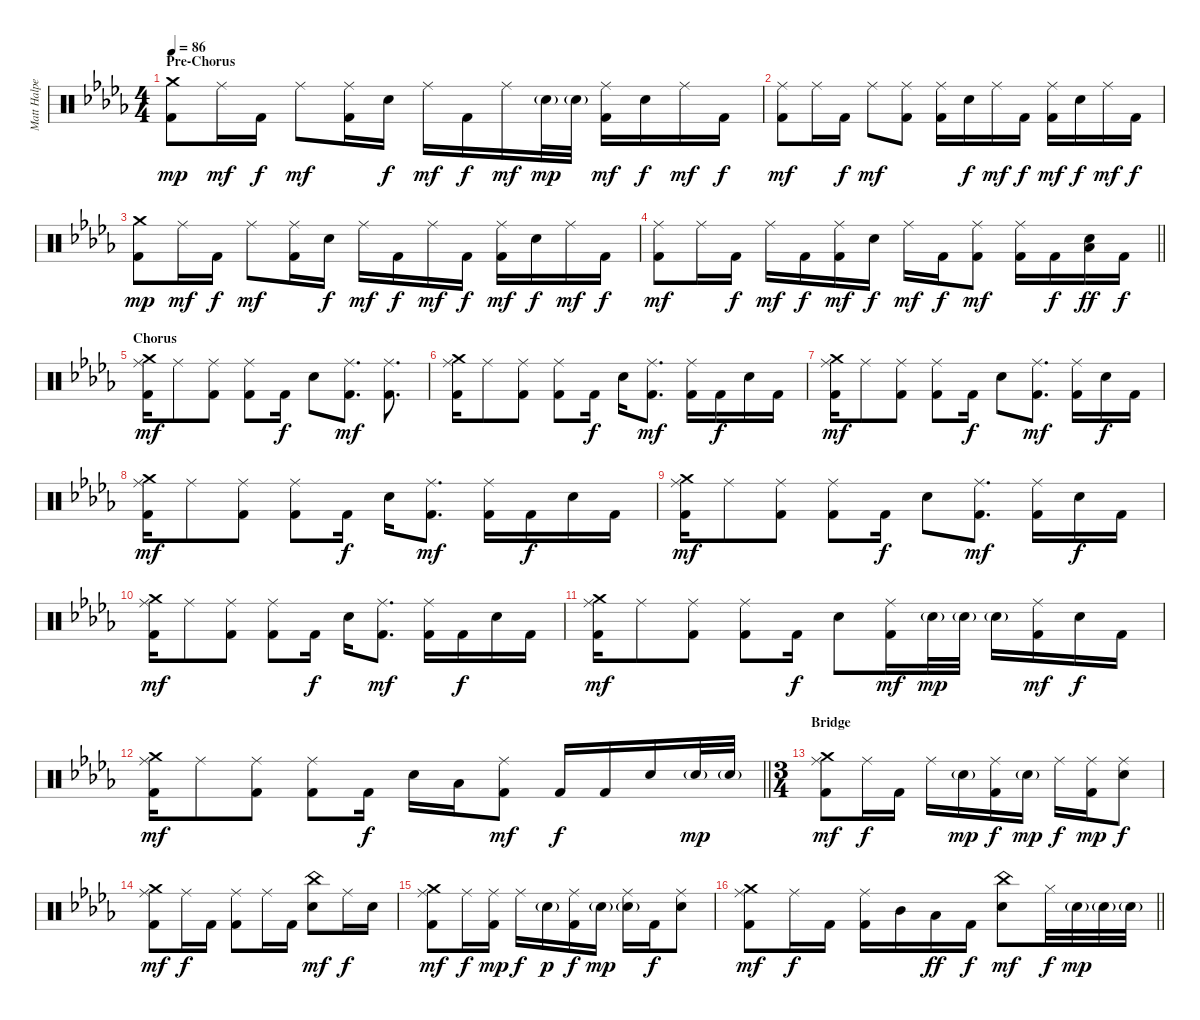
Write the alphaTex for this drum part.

\track ("Matt Halpern - Drums" "Matt Halpe") {instrument percussion}
\staff {score}
\articulation defaults
\ts (4 4)
\section ("" "Pre-Chorus")
\tempo 86
\clef neutral
\ks bbminor
("Crash medium (hit)" "Kick (hit) 2").8{dy mp} "Ride (middle)".16{dy mf} "Kick (hit) 2".16{dy f} "Ride (middle)".8{dy mf} ("Ride (middle)" "Kick (hit) 2").16 "Snare (hit) 2".16{dy f} "Ride (middle)".16{dy mf} "Kick (hit) 2".16{dy f} "Ride (middle)".16{dy mf} "Snare (hit) 2"{g}.32{dy mp} "Snare (hit) 2"{g}.32 ("Ride (middle)" "Kick (hit) 2").16{dy mf} "Snare (hit) 2".16{dy f} "Ride (middle)".16{dy mf} "Kick (hit) 2".16{dy f} |
("Ride (middle)" "Kick (hit) 2").8{dy mf} "Ride (middle)".16 "Kick (hit) 2".16{dy f} "Ride (middle)".8{dy mf} ("Ride (middle)" "Kick (hit) 2").8 ("Ride (middle)" "Kick (hit) 2").16 "Snare (hit) 2".16{dy f} "Ride (middle)".16{dy mf} "Kick (hit) 2".16{dy f} ("Ride (middle)" "Kick (hit) 2").16{dy mf} "Snare (hit) 2".16{dy f} "Ride (middle)".16{dy mf} "Kick (hit) 2".16{dy f} |
("Crash medium (hit)" "Kick (hit) 2").8{dy mp} "Ride (middle)".16{dy mf} "Kick (hit) 2".16{dy f} "Ride (middle)".8{dy mf} ("Ride (middle)" "Kick (hit) 2").16 "Snare (hit) 2".16{dy f} "Ride (middle)".16{dy mf} "Kick (hit) 2".16{dy f} "Ride (middle)".16{dy mf} "Kick (hit) 2".16{dy f} ("Ride (middle)" "Kick (hit) 2").16{dy mf} "Snare (hit) 2".16{dy f} "Ride (middle)".16{dy mf} "Kick (hit) 2".16{dy f} |
\barLineRight lightlight
("Ride (middle)" "Kick (hit) 2").8{dy mf} "Ride (middle)".16 "Kick (hit) 2".16{dy f} "Ride (middle)".16{dy mf} "Kick (hit) 2".16{dy f} ("Ride (middle)" "Kick (hit) 2").16{dy mf} "Snare (hit) 2".16{dy f} "Ride (middle)".16{dy mf} "Kick (hit) 2".16{dy f} ("Ride (middle)" "Kick (hit) 2").8{dy mf} ("Ride (middle)" "Kick (hit) 2").16 "Kick (hit) 2".16{dy f} ("Snare (hit) 2" "Low Floor Tom (hit)").16{bd 480 dy ff} "Kick (hit) 2".16{dy f} |
\section ("" "Chorus")
("Ride (middle)" "Crash medium (hit)" "Kick (hit) 2").16{dy mf} "Ride (middle)".8 ("Ride (middle)" "Kick (hit) 2").8 ("Ride (middle)" "Kick (hit) 2").8 "Kick (hit) 2".16{dy f} "Snare (hit) 2".8 ("Ride (middle)" "Kick (hit) 2").8{d dy mf} ("Ride (middle)" "Kick (hit) 2").8{d} |
("Ride (middle)" "Crash medium (hit)" "Kick (hit) 2").16 "Ride (middle)".8 ("Ride (middle)" "Kick (hit) 2").8 ("Ride (middle)" "Kick (hit) 2").8 "Kick (hit) 2".16{dy f} "Snare (hit) 2".16 ("Ride (middle)" "Kick (hit) 2").8{d dy mf} ("Ride (middle)" "Kick (hit) 2").16 "Kick (hit) 2".16{dy f} "Snare (hit) 2".16 "Kick (hit) 2".16 |
("Ride (middle)" "Crash medium (hit)" "Kick (hit) 2").16{dy mf} "Ride (middle)".8 ("Ride (middle)" "Kick (hit) 2").8 ("Ride (middle)" "Kick (hit) 2").8 "Kick (hit) 2".16{dy f} "Snare (hit) 2".8 ("Ride (middle)" "Kick (hit) 2").8{d dy mf} ("Ride (middle)" "Kick (hit) 2").16 "Snare (hit) 2".16{dy f} "Kick (hit) 2".16 |
("Ride (middle)" "Crash medium (hit)" "Kick (hit) 2").16{dy mf} "Ride (middle)".8 ("Ride (middle)" "Kick (hit) 2").8 ("Ride (middle)" "Kick (hit) 2").8 "Kick (hit) 2".16{dy f} "Snare (hit) 2".16 ("Ride (middle)" "Kick (hit) 2").8{d dy mf} ("Ride (middle)" "Kick (hit) 2").16 "Kick (hit) 2".16{dy f} "Snare (hit) 2".16 "Kick (hit) 2".16 |
("Ride (middle)" "Crash medium (hit)" "Kick (hit) 2").16{dy mf} "Ride (middle)".8 ("Ride (middle)" "Kick (hit) 2").8 ("Ride (middle)" "Kick (hit) 2").8 "Kick (hit) 2".16{dy f} "Snare (hit) 2".8 ("Ride (middle)" "Kick (hit) 2").8{d dy mf} ("Ride (middle)" "Kick (hit) 2").16 "Snare (hit) 2".16{dy f} "Kick (hit) 2".16 |
("Ride (middle)" "Crash medium (hit)" "Kick (hit) 2").16{dy mf} "Ride (middle)".8 ("Ride (middle)" "Kick (hit) 2").8 ("Ride (middle)" "Kick (hit) 2").8 "Kick (hit) 2".16{dy f} "Snare (hit) 2".16 ("Ride (middle)" "Kick (hit) 2").8{d dy mf} ("Ride (middle)" "Kick (hit) 2").16 "Kick (hit) 2".16{dy f} "Snare (hit) 2".16 "Kick (hit) 2".16 |
("Ride (middle)" "Crash medium (hit)" "Kick (hit) 2").16{dy mf} "Ride (middle)".8 ("Ride (middle)" "Kick (hit) 2").8 ("Ride (middle)" "Kick (hit) 2").8 "Kick (hit) 2".16{dy f} "Snare (hit) 2".8 ("Ride (middle)" "Kick (hit) 2").16{dy mf} "Snare (hit) 2"{g}.32{dy mp} "Snare (hit) 2"{g}.32 "Snare (hit) 2"{g}.16 ("Ride (middle)" "Kick (hit) 2").16{dy mf} "Snare (hit) 2".16{dy f} "Kick (hit) 2".16 |
\barLineRight lightlight
("Ride (middle)" "Crash medium (hit)" "Kick (hit) 2").16{dy mf} "Ride (middle)".8 ("Ride (middle)" "Kick (hit) 2").8 ("Ride (middle)" "Kick (hit) 2").8 "Kick (hit) 2".16{dy f} "Snare (hit) 2".16 "Low Tom (hit)".16 ("Ride (middle)" "Kick (hit) 2").8{dy mf} "Kick (hit) 2".16{dy f} "Kick (hit) 2".16 "Snare (hit) 2".16 "Snare (hit) 2"{g}.32{dy mp} "Snare (hit) 2"{g}.32 |
\ts (3 4)
\section ("" "Bridge")
("Ride (middle)" "Crash medium (hit)" "Kick (hit) 2").8{dy mf} "Ride (middle)".16{dy f} "Kick (hit) 2".16 "Ride (middle)".16 "Snare (hit) 2"{g}.16{dy mp} ("Ride (middle)" "Kick (hit) 2").16{dy f} "Snare (hit) 2"{g}.16{dy mp} "Ride (middle)".16{dy f} ("Ride (middle)" "Kick (hit) 2").16{dy mp} ("Ride (middle)" "Snare (hit) 2").8{dy f} |
("Ride (middle)" "Crash medium (hit)" "Kick (hit) 2").8{dy mf} "Ride (middle)".16{dy f} "Kick (hit) 2".16 ("Ride (middle)" "Kick (hit) 2").8 "Ride (middle)".16 "Kick (hit) 2".16 ("China (hit)" "Snare (hit) 2").8{dy mf} "Ride (middle)".16{dy f} "Snare (hit) 2".16 |
("Ride (middle)" "Crash medium (hit)" "Kick (hit) 2").8{dy mf} "Ride (middle)".16{dy f} ("Ride (middle)" "Kick (hit) 2").16{dy mp} "Ride (middle)".16{dy f} "Snare (hit) 2"{g}.16{dy p} ("Ride (middle)" "Kick (hit) 2").16{dy f} "Snare (hit) 2"{g}.16{dy mp} ("Ride (middle)" "Snare (hit) 2"{g}).16 "Kick (hit) 2".16{dy f} ("Ride (middle)" "Snare (hit) 2").8 |
\barLineRight lightlight
("Ride (middle)" "Crash medium (hit)" "Kick (hit) 2").8{dy mf} "Ride (middle)".16{dy f} "Kick (hit) 2".16 ("Ride (middle)" "Kick (hit) 2").16 "Mid Tom (hit)".16 "Low Floor Tom (hit)".16{dy ff} "Kick (hit) 2".16{dy f} ("China (hit)" "Snare (hit) 2").8{dy mf} "Hi-Hat (closed)".32{dy f} "Snare (hit) 2"{g}.32{dy mp} "Snare (hit) 2"{g}.32 "Snare (hit) 2"{g}.32
